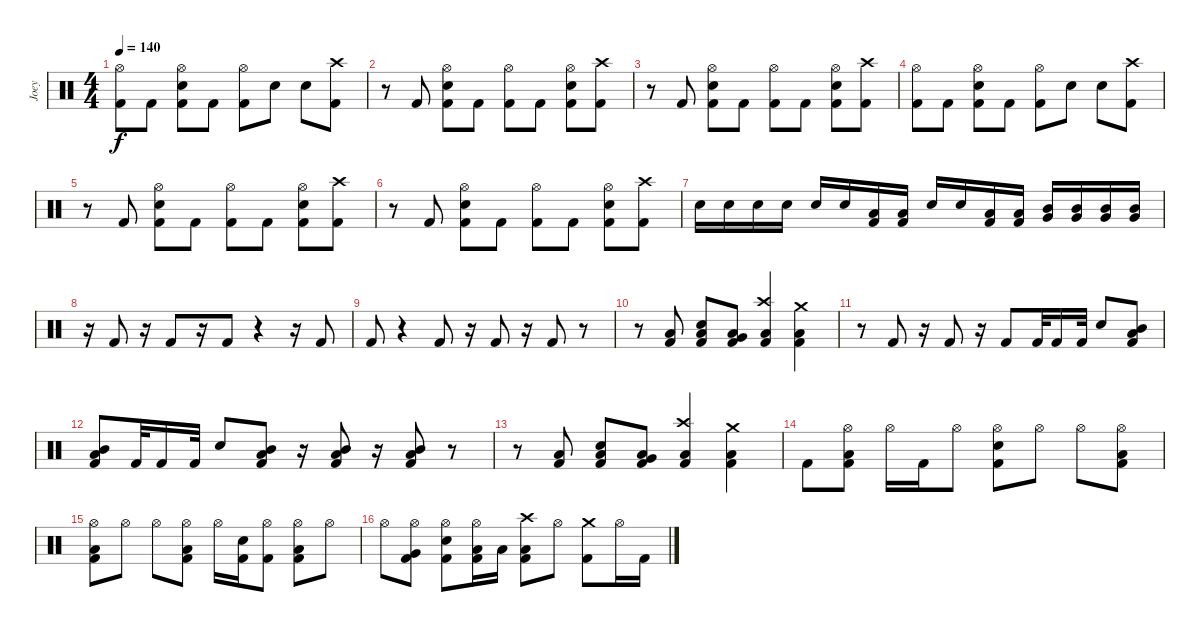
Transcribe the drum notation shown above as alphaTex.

\track ("Joey" "Joey") {instrument percussion}
\staff {score}
\articulation defaults
\ts (4 4)
\tempo 140
\clef neutral
\ks c
("Hi-Hat (open)" "Kick (hit) 2").8{dy f} "Kick (hit) 2".8 ("Hi-Hat (open)" "Electric Snare (hit)" "Kick (hit) 2").8 "Kick (hit) 2".8 ("Hi-Hat (open)" "Kick (hit) 2").8 "Electric Snare (hit)".8 "Electric Snare (hit)".8 ("Crash high (hit)" "Kick (hit) 2").8 |
r.8 "Kick (hit) 2".8 ("Hi-Hat (open)" "Electric Snare (hit)" "Kick (hit) 2").8 "Kick (hit) 2".8 ("Hi-Hat (open)" "Kick (hit) 2").8 "Kick (hit) 2".8 ("Hi-Hat (open)" "Electric Snare (hit)" "Kick (hit) 2").8 ("Crash high (hit)" "Kick (hit) 2").8 |
r.8 "Kick (hit) 2".8 ("Hi-Hat (open)" "Electric Snare (hit)" "Kick (hit) 2").8 "Kick (hit) 2".8 ("Hi-Hat (open)" "Kick (hit) 2").8 "Kick (hit) 2".8 ("Hi-Hat (open)" "Electric Snare (hit)" "Kick (hit) 2").8 ("Crash high (hit)" "Kick (hit) 2").8 |
("Hi-Hat (open)" "Kick (hit) 2").8 "Kick (hit) 2".8 ("Hi-Hat (open)" "Electric Snare (hit)" "Kick (hit) 2").8 "Kick (hit) 2".8 ("Hi-Hat (open)" "Kick (hit) 2").8 "Electric Snare (hit)".8 "Electric Snare (hit)".8 ("Crash high (hit)" "Kick (hit) 2").8 |
r.8 "Kick (hit) 2".8 ("Hi-Hat (open)" "Electric Snare (hit)" "Kick (hit) 2").8 "Kick (hit) 2".8 ("Hi-Hat (open)" "Kick (hit) 2").8 "Kick (hit) 2".8 ("Hi-Hat (open)" "Electric Snare (hit)" "Kick (hit) 2").8 ("Crash high (hit)" "Kick (hit) 2").8 |
r.8 "Kick (hit) 2".8 ("Hi-Hat (open)" "Electric Snare (hit)" "Kick (hit) 2").8 "Kick (hit) 2".8 ("Hi-Hat (open)" "Kick (hit) 2").8 "Kick (hit) 2".8 ("Hi-Hat (open)" "Electric Snare (hit)" "Kick (hit) 2").8 ("Crash high (hit)" "Kick (hit) 2").8 |
"Electric Snare (hit)".16 "Electric Snare (hit)".16 "Electric Snare (hit)".16 "Electric Snare (hit)".16 "Electric Snare (hit)".16 "Electric Snare (hit)".16 ("Low Floor Tom (hit)" "Kick (hit) 2").16 ("Low Floor Tom (hit)" "Kick (hit) 2").16 "Electric Snare (hit)".16 "Electric Snare (hit)".16 ("Low Floor Tom (hit)" "Kick (hit) 2").16 ("Low Floor Tom (hit)" "Kick (hit) 2").16 ("Very Low Tom (hit)" "Mid Tom (hit)").16 ("Very Low Tom (hit)" "Mid Tom (hit)").16 ("Very Low Tom (hit)" "Mid Tom (hit)").16 ("Very Low Tom (hit)" "Mid Tom (hit)").16 |
r.16 "Kick (hit) 2".8 r.16 "Kick (hit) 2".8 r.16 "Kick (hit) 2".8 r.4 r.16 "Kick (hit) 2".8 |
"Kick (hit) 2".8 r.4 "Kick (hit) 2".8 r.16 "Kick (hit) 2".8 r.16 "Kick (hit) 2".8 r.8 |
r.8 ("Low Floor Tom (hit)" "Kick (hit) 2").8 ("Electric Snare (hit)" "Low Floor Tom (hit)" "Kick (hit) 2").8 ("Very Low Tom (hit)" "Low Floor Tom (hit)" "Kick (hit) 2").8 ("Crash high (hit)" "Low Floor Tom (hit)" "Kick (hit) 2").4 ("Crash medium (hit)" "Low Floor Tom (hit)" "Kick (hit) 2").4 |
r.8 "Kick (hit) 2".8 r.16 "Kick (hit) 2".8 r.16 "Kick (hit) 2".8 "Kick (hit) 2".32 "Kick (hit) 2".16 "Kick (hit) 2".32 "Electric Snare (hit)".8 ("Mid Tom (hit)" "Low Floor Tom (hit)" "Kick (hit) 2").8 |
("Mid Tom (hit)" "Low Floor Tom (hit)" "Kick (hit) 2").8 "Kick (hit) 2".32 "Kick (hit) 2".16 "Kick (hit) 2".32 "Electric Snare (hit)".8 ("Mid Tom (hit)" "Low Floor Tom (hit)" "Kick (hit) 2").8 r.16 ("Mid Tom (hit)" "Low Floor Tom (hit)" "Kick (hit) 2").8 r.16 ("Mid Tom (hit)" "Low Floor Tom (hit)" "Kick (hit) 2").8 r.8 |
r.8 ("Low Floor Tom (hit)" "Kick (hit) 2").8 ("Electric Snare (hit)" "Low Floor Tom (hit)" "Kick (hit) 2").8 ("Very Low Tom (hit)" "Low Floor Tom (hit)" "Kick (hit) 2").8 ("Crash high (hit)" "Low Floor Tom (hit)" "Kick (hit) 2").4 ("Crash medium (hit)" "Low Floor Tom (hit)" "Kick (hit) 2").4 |
"Kick (hit) 2".8 ("Hi-Hat (open)" "Low Floor Tom (hit)" "Kick (hit) 2").8 "Hi-Hat (open)".16 "Kick (hit) 2".16 "Hi-Hat (open)".8 ("Hi-Hat (open)" "Electric Snare (hit)" "Kick (hit) 2").8 "Hi-Hat (open)".8 "Hi-Hat (open)".8 ("Hi-Hat (open)" "Low Floor Tom (hit)" "Kick (hit) 2").8 |
("Hi-Hat (open)" "Low Floor Tom (hit)" "Kick (hit) 2").8 "Hi-Hat (open)".8 "Hi-Hat (open)".8 ("Hi-Hat (open)" "Low Floor Tom (hit)" "Kick (hit) 2").8 "Hi-Hat (open)".16 ("Electric Snare (hit)" "Kick (hit) 2").16 ("Hi-Hat (open)" "Kick (hit) 2").8 ("Hi-Hat (open)" "Low Floor Tom (hit)" "Kick (hit) 2").8 "Hi-Hat (open)".8 |
"Hi-Hat (open)".8 ("Hi-Hat (open)" "Very Low Tom (hit)" "Kick (hit) 2").8 ("Hi-Hat (open)" "Electric Snare (hit)" "Kick (hit) 2").8 ("Hi-Hat (open)" "Low Floor Tom (hit)" "Kick (hit) 2").16 "Low Floor Tom (hit)".16 ("Crash high (hit)" "Low Floor Tom (hit)" "Kick (hit) 2").8 "Hi-Hat (open)".8 ("Crash medium (hit)" "Kick (hit) 2").8 "Hi-Hat (open)".16 "Kick (hit) 2".16
